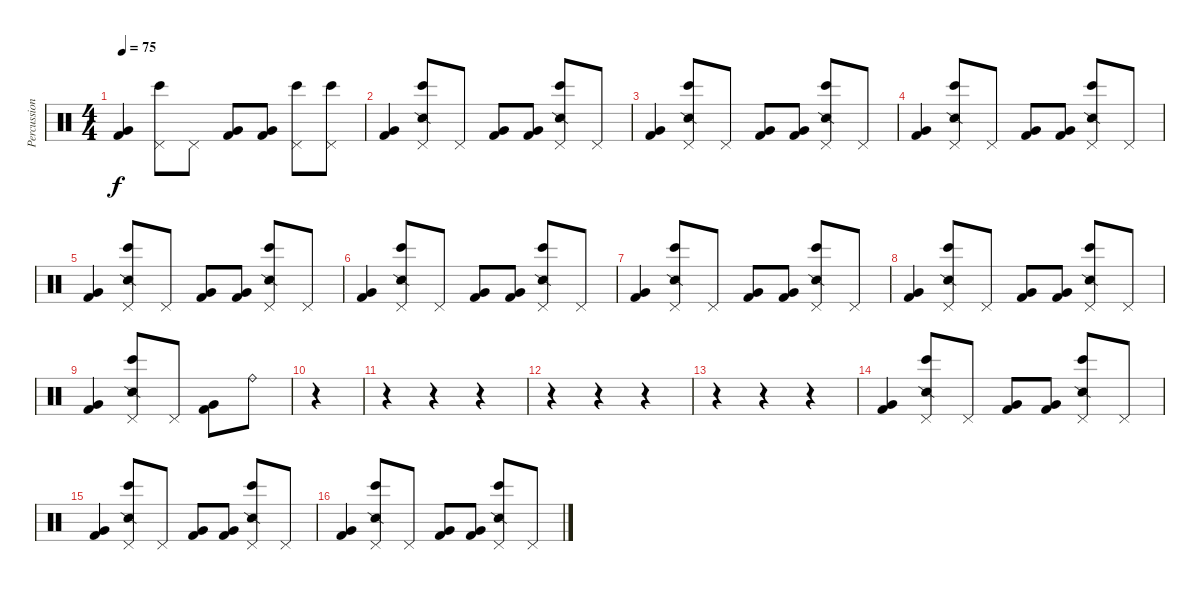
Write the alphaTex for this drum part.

\track ("Percussion" "Percussion") {instrument percussion}
\staff {score}
\articulation defaults
\ts (4 4)
\tempo 75
\clef neutral
\ks c
("Very Low Tom (hit)" "Kick (hit) 2").4{dy f} ("Pedal Hi-Hat (hit)" "Bongo High (hit)").8 "Pedal Hi-Hat (hit)".8 ("Very Low Tom (hit)" "Kick (hit) 2").8 ("Very Low Tom (hit)" "Kick (hit) 2").8 ("Pedal Hi-Hat (hit)" "Bongo High (hit)").8 ("Pedal Hi-Hat (hit)" "Bongo High (hit)").8 |
("Very Low Tom (hit)" "Kick (hit) 2").4 ("Pedal Hi-Hat (hit)" "Bongo High (hit)" "Snare (side stick) 2").8 "Pedal Hi-Hat (hit)".8 ("Very Low Tom (hit)" "Kick (hit) 2").8 ("Very Low Tom (hit)" "Kick (hit) 2").8 ("Pedal Hi-Hat (hit)" "Bongo High (hit)" "Snare (side stick) 2").8 "Pedal Hi-Hat (hit)".8 |
("Very Low Tom (hit)" "Kick (hit) 2").4 ("Pedal Hi-Hat (hit)" "Bongo High (hit)" "Snare (side stick) 2").8 "Pedal Hi-Hat (hit)".8 ("Very Low Tom (hit)" "Kick (hit) 2").8 ("Very Low Tom (hit)" "Kick (hit) 2").8 ("Pedal Hi-Hat (hit)" "Bongo High (hit)" "Snare (side stick) 2").8 "Pedal Hi-Hat (hit)".8 |
("Very Low Tom (hit)" "Kick (hit) 2").4 ("Pedal Hi-Hat (hit)" "Bongo High (hit)" "Snare (side stick) 2").8 "Pedal Hi-Hat (hit)".8 ("Very Low Tom (hit)" "Kick (hit) 2").8 ("Very Low Tom (hit)" "Kick (hit) 2").8 ("Pedal Hi-Hat (hit)" "Bongo High (hit)" "Snare (side stick) 2").8 "Pedal Hi-Hat (hit)".8 |
("Very Low Tom (hit)" "Kick (hit) 2").4 ("Pedal Hi-Hat (hit)" "Bongo High (hit)" "Snare (side stick) 2").8 "Pedal Hi-Hat (hit)".8 ("Very Low Tom (hit)" "Kick (hit) 2").8 ("Very Low Tom (hit)" "Kick (hit) 2").8 ("Pedal Hi-Hat (hit)" "Bongo High (hit)" "Snare (side stick) 2").8 "Pedal Hi-Hat (hit)".8 |
("Very Low Tom (hit)" "Kick (hit) 2").4 ("Pedal Hi-Hat (hit)" "Bongo High (hit)" "Snare (side stick) 2").8 "Pedal Hi-Hat (hit)".8 ("Very Low Tom (hit)" "Kick (hit) 2").8 ("Very Low Tom (hit)" "Kick (hit) 2").8 ("Pedal Hi-Hat (hit)" "Bongo High (hit)" "Snare (side stick) 2").8 "Pedal Hi-Hat (hit)".8 |
("Very Low Tom (hit)" "Kick (hit) 2").4 ("Pedal Hi-Hat (hit)" "Bongo High (hit)" "Snare (side stick) 2").8 "Pedal Hi-Hat (hit)".8 ("Very Low Tom (hit)" "Kick (hit) 2").8 ("Very Low Tom (hit)" "Kick (hit) 2").8 ("Pedal Hi-Hat (hit)" "Bongo High (hit)" "Snare (side stick) 2").8 "Pedal Hi-Hat (hit)".8 |
("Very Low Tom (hit)" "Kick (hit) 2").4 ("Pedal Hi-Hat (hit)" "Bongo High (hit)" "Snare (side stick) 2").8 "Pedal Hi-Hat (hit)".8 ("Very Low Tom (hit)" "Kick (hit) 2").8 ("Very Low Tom (hit)" "Kick (hit) 2").8 ("Pedal Hi-Hat (hit)" "Bongo High (hit)" "Snare (side stick) 2").8 "Pedal Hi-Hat (hit)".8 |
("Very Low Tom (hit)" "Kick (hit) 2").4 ("Pedal Hi-Hat (hit)" "Bongo High (hit)" "Snare (side stick) 2").8 "Pedal Hi-Hat (hit)".8 ("Very Low Tom (hit)" "Kick (hit) 2").8 "Ride (bell)".8 |
r.4 |
r.4 r.4 r.4 |
r.4 r.4 r.4 |
r.4 r.4 r.4 |
("Very Low Tom (hit)" "Kick (hit) 2").4 ("Pedal Hi-Hat (hit)" "Bongo High (hit)" "Snare (side stick) 2").8 "Pedal Hi-Hat (hit)".8 ("Very Low Tom (hit)" "Kick (hit) 2").8 ("Very Low Tom (hit)" "Kick (hit) 2").8 ("Pedal Hi-Hat (hit)" "Bongo High (hit)" "Snare (side stick) 2").8 "Pedal Hi-Hat (hit)".8 |
("Very Low Tom (hit)" "Kick (hit) 2").4 ("Pedal Hi-Hat (hit)" "Bongo High (hit)" "Snare (side stick) 2").8 "Pedal Hi-Hat (hit)".8 ("Very Low Tom (hit)" "Kick (hit) 2").8 ("Very Low Tom (hit)" "Kick (hit) 2").8 ("Pedal Hi-Hat (hit)" "Bongo High (hit)" "Snare (side stick) 2").8 "Pedal Hi-Hat (hit)".8 |
("Very Low Tom (hit)" "Kick (hit) 2").4 ("Pedal Hi-Hat (hit)" "Bongo High (hit)" "Snare (side stick) 2").8 "Pedal Hi-Hat (hit)".8 ("Very Low Tom (hit)" "Kick (hit) 2").8 ("Very Low Tom (hit)" "Kick (hit) 2").8 ("Pedal Hi-Hat (hit)" "Bongo High (hit)" "Snare (side stick) 2").8 "Pedal Hi-Hat (hit)".8
